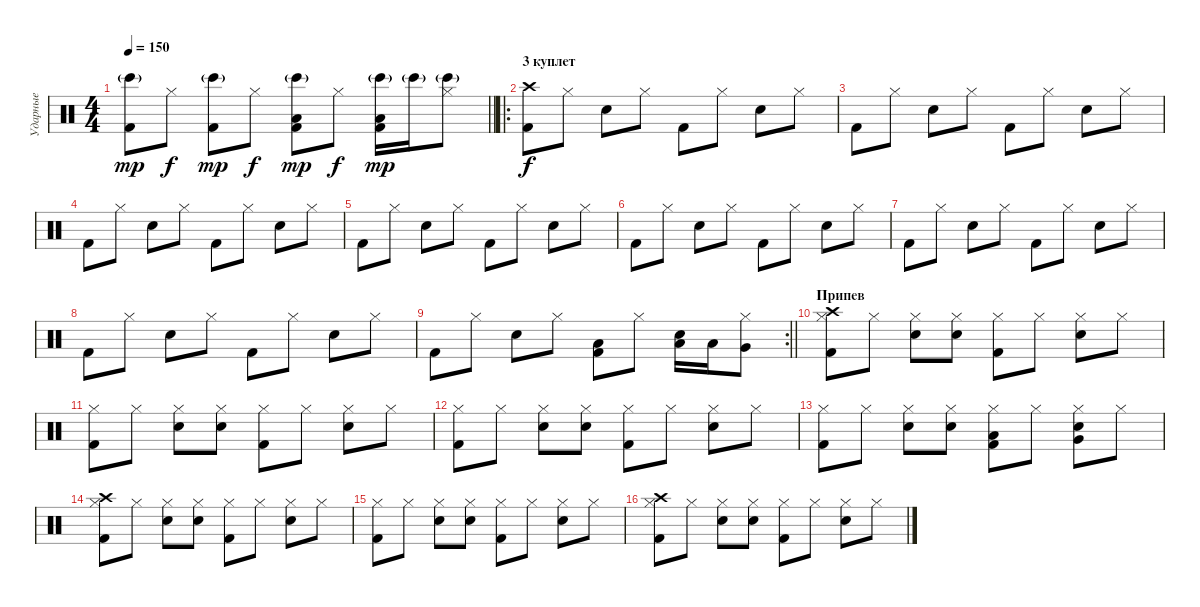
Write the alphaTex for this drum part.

\track ("Ударные" "Ударные") {instrument percussion}
\staff {score}
\articulation defaults
\ts (4 4)
\tempo 150
\clef neutral
\barLineRight lightlight
\ks c
("Kick (hit) 2" "Bongo High (hit)"{g}).8{dy mp} "Hi-Hat (closed)".8{dy f} ("Kick (hit) 2" "Bongo High (hit)"{g}).8{dy mp} "Hi-Hat (closed)".8{dy f} ("Kick (hit) 2" "Bongo High (hit)"{g} "Low Tom (hit)").8{dy mp} "Hi-Hat (closed)".8{dy f} ("Kick (hit) 2" "Bongo High (hit)"{g} "Low Tom (hit)").16{dy mp} "Bongo High (hit)"{g}.16 ("Hi-Hat (closed)" "Bongo High (hit)"{g}).8 |
\ro
\section ("" "3 куплет")
("Kick (hit) 2" "Crash high (hit)").8{dy f} "Hi-Hat (closed)".8 "Snare (hit) 2".8 "Hi-Hat (closed)".8 "Kick (hit) 2".8 "Hi-Hat (closed)".8 "Snare (hit) 2".8 "Hi-Hat (closed)".8 |
"Kick (hit) 2".8 "Hi-Hat (closed)".8 "Snare (hit) 2".8 "Hi-Hat (closed)".8 "Kick (hit) 2".8 "Hi-Hat (closed)".8 "Snare (hit) 2".8 "Hi-Hat (closed)".8 |
"Kick (hit) 2".8 "Hi-Hat (closed)".8 "Snare (hit) 2".8 "Hi-Hat (closed)".8 "Kick (hit) 2".8 "Hi-Hat (closed)".8 "Snare (hit) 2".8 "Hi-Hat (closed)".8 |
"Kick (hit) 2".8 "Hi-Hat (closed)".8 "Snare (hit) 2".8 "Hi-Hat (closed)".8 "Kick (hit) 2".8 "Hi-Hat (closed)".8 "Snare (hit) 2".8 "Hi-Hat (closed)".8 |
"Kick (hit) 2".8 "Hi-Hat (closed)".8 "Snare (hit) 2".8 "Hi-Hat (closed)".8 "Kick (hit) 2".8 "Hi-Hat (closed)".8 "Snare (hit) 2".8 "Hi-Hat (closed)".8 |
"Kick (hit) 2".8 "Hi-Hat (closed)".8 "Snare (hit) 2".8 "Hi-Hat (closed)".8 "Kick (hit) 2".8 "Hi-Hat (closed)".8 "Snare (hit) 2".8 "Hi-Hat (closed)".8 |
"Kick (hit) 2".8 "Hi-Hat (closed)".8 "Snare (hit) 2".8 "Hi-Hat (closed)".8 "Kick (hit) 2".8 "Hi-Hat (closed)".8 "Snare (hit) 2".8 "Hi-Hat (closed)".8 |
\rc 2
\barLineRight lightlight "Kick (hit) 2".8 "Hi-Hat (closed)".8 "Snare (hit) 2".8 "Hi-Hat (closed)".8
("Kick (hit) 2" "Low Tom (hit)").8 "Hi-Hat (closed)".8 ("Snare (hit) 2" "Low Tom (hit)").16 "Low Tom (hit)".16 ("Hi-Hat (closed)" "Very Low Tom (hit)").8 |
\section ("" "Припев")
("Kick (hit) 2" "Hi-Hat (closed)" "Crash high (hit)").8 "Hi-Hat (closed)".8 ("Snare (hit) 2" "Hi-Hat (closed)").8 ("Snare (hit) 2" "Hi-Hat (closed)").8 ("Kick (hit) 2" "Hi-Hat (closed)").8 "Hi-Hat (closed)".8 ("Snare (hit) 2" "Hi-Hat (closed)").8 "Hi-Hat (closed)".8 |
("Kick (hit) 2" "Hi-Hat (closed)").8 "Hi-Hat (closed)".8 ("Snare (hit) 2" "Hi-Hat (closed)").8 ("Snare (hit) 2" "Hi-Hat (closed)").8 ("Kick (hit) 2" "Hi-Hat (closed)").8 "Hi-Hat (closed)".8 ("Snare (hit) 2" "Hi-Hat (closed)").8 "Hi-Hat (closed)".8 |
("Kick (hit) 2" "Hi-Hat (closed)").8 "Hi-Hat (closed)".8 ("Snare (hit) 2" "Hi-Hat (closed)").8 ("Snare (hit) 2" "Hi-Hat (closed)").8 ("Kick (hit) 2" "Hi-Hat (closed)").8 "Hi-Hat (closed)".8 ("Snare (hit) 2" "Hi-Hat (closed)").8 "Hi-Hat (closed)".8 |
("Kick (hit) 2" "Hi-Hat (closed)").8 "Hi-Hat (closed)".8 ("Snare (hit) 2" "Hi-Hat (closed)").8 ("Snare (hit) 2" "Hi-Hat (closed)").8 ("Kick (hit) 2" "Hi-Hat (closed)" "Low Tom (hit)").8 "Hi-Hat (closed)".8 ("Snare (hit) 2" "Hi-Hat (closed)" "Very Low Tom (hit)").8 "Hi-Hat (closed)".8 |
("Kick (hit) 2" "Hi-Hat (closed)" "Crash high (hit)").8 "Hi-Hat (closed)".8 ("Snare (hit) 2" "Hi-Hat (closed)").8 ("Snare (hit) 2" "Hi-Hat (closed)").8 ("Kick (hit) 2" "Hi-Hat (closed)").8 "Hi-Hat (closed)".8 ("Snare (hit) 2" "Hi-Hat (closed)").8 "Hi-Hat (closed)".8 |
("Kick (hit) 2" "Hi-Hat (closed)").8 "Hi-Hat (closed)".8 ("Snare (hit) 2" "Hi-Hat (closed)").8 ("Snare (hit) 2" "Hi-Hat (closed)").8 ("Kick (hit) 2" "Hi-Hat (closed)").8 "Hi-Hat (closed)".8 ("Snare (hit) 2" "Hi-Hat (closed)").8 "Hi-Hat (closed)".8 |
("Kick (hit) 2" "Hi-Hat (closed)" "Crash high (hit)").8 "Hi-Hat (closed)".8 ("Snare (hit) 2" "Hi-Hat (closed)").8 ("Snare (hit) 2" "Hi-Hat (closed)").8 ("Kick (hit) 2" "Hi-Hat (closed)").8 "Hi-Hat (closed)".8 ("Snare (hit) 2" "Hi-Hat (closed)").8 "Hi-Hat (closed)".8
